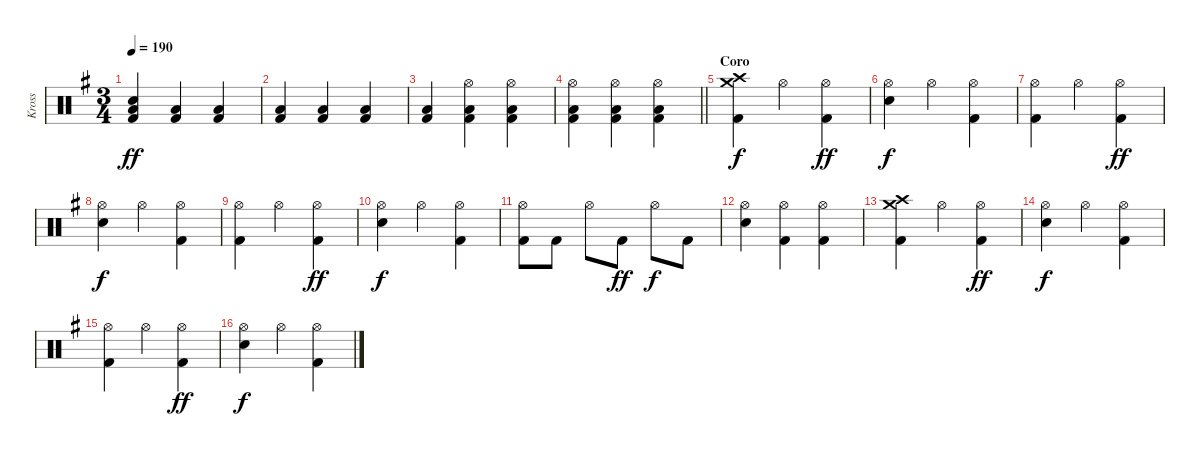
\track ("Kross" "Kross") {instrument percussion}
\staff {score}
\articulation defaults
\ts (3 4)
\tempo 190
\clef neutral
\ks g
("Snare (hit) 2" "Low Floor Tom (hit)" "Kick (hit) 2").4{dy ff} ("Low Floor Tom (hit)" "Kick (hit) 2").4 ("Low Floor Tom (hit)" "Kick (hit) 2").4 |
("Low Floor Tom (hit)" "Kick (hit) 2").4 ("Low Floor Tom (hit)" "Kick (hit) 2").4 ("Low Floor Tom (hit)" "Kick (hit) 2").4 |
("Low Floor Tom (hit)" "Kick (hit) 2").4 ("Hi-Hat (open)" "Low Floor Tom (hit)" "Kick (hit) 2").4 ("Hi-Hat (open)" "Low Floor Tom (hit)" "Kick (hit) 2").4 |
\barLineRight lightlight
("Hi-Hat (open)" "Low Floor Tom (hit)" "Kick (hit) 2").4 ("Hi-Hat (open)" "Low Floor Tom (hit)" "Kick (hit) 2").4 ("Hi-Hat (open)" "Low Floor Tom (hit)" "Kick (hit) 2").4 |
\section ("" "Coro")
("Crash high (hit)" "Crash medium (hit)" "Kick (hit) 2").4{dy f} "Hi-Hat (open)".4 ("Hi-Hat (open)" "Kick (hit) 2").4{dy ff} |
("Hi-Hat (open)" "Snare (hit) 2").4{dy f} "Hi-Hat (open)".4 ("Hi-Hat (open)" "Kick (hit) 2").4 |
("Hi-Hat (open)" "Kick (hit) 2").4 "Hi-Hat (open)".4 ("Hi-Hat (open)" "Kick (hit) 2").4{dy ff} |
("Hi-Hat (open)" "Snare (hit) 2").4{dy f} "Hi-Hat (open)".4 ("Hi-Hat (open)" "Kick (hit) 2").4 |
("Hi-Hat (open)" "Kick (hit) 2").4 "Hi-Hat (open)".4 ("Hi-Hat (open)" "Kick (hit) 2").4{dy ff} |
("Hi-Hat (open)" "Snare (hit) 2").4{dy f} "Hi-Hat (open)".4 ("Hi-Hat (open)" "Kick (hit) 2").4 |
("Hi-Hat (open)" "Kick (hit) 2").8 "Kick (hit) 2".8 "Hi-Hat (open)".8 "Kick (hit) 2".8{dy ff} "Hi-Hat (open)".8{dy f} "Kick (hit) 2".8 |
("Hi-Hat (open)" "Snare (hit) 2").4 ("Hi-Hat (open)" "Kick (hit) 2").4 ("Hi-Hat (open)" "Kick (hit) 2").4 |
("Crash high (hit)" "Crash medium (hit)" "Kick (hit) 2").4 "Hi-Hat (open)".4 ("Hi-Hat (open)" "Kick (hit) 2").4{dy ff} |
("Hi-Hat (open)" "Snare (hit) 2").4{dy f} "Hi-Hat (open)".4 ("Hi-Hat (open)" "Kick (hit) 2").4 |
("Hi-Hat (open)" "Kick (hit) 2").4 "Hi-Hat (open)".4 ("Hi-Hat (open)" "Kick (hit) 2").4{dy ff} |
("Hi-Hat (open)" "Snare (hit) 2").4{dy f} "Hi-Hat (open)".4 ("Hi-Hat (open)" "Kick (hit) 2").4
